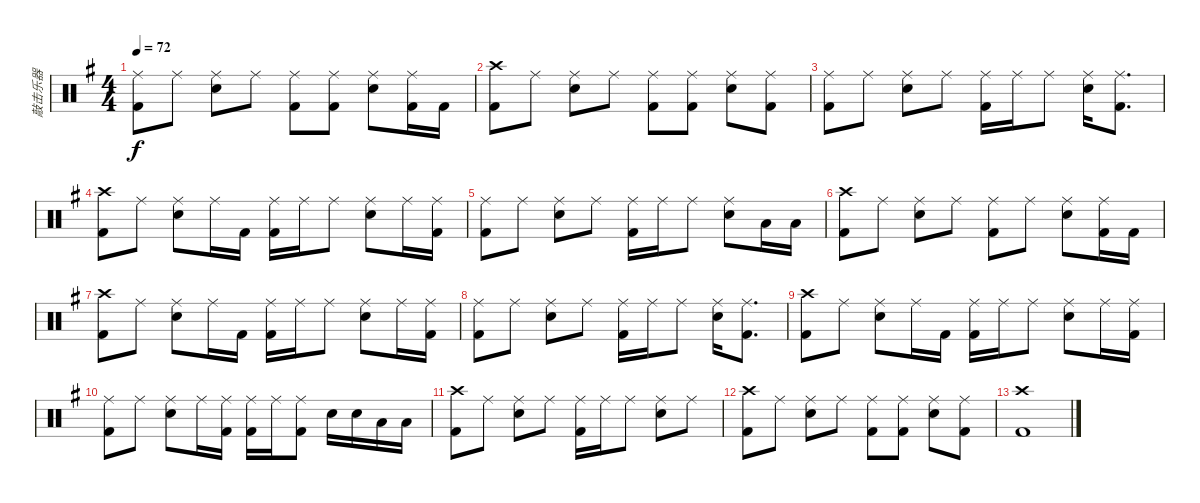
\track ("敲击乐器" "敲击乐器") {instrument percussion}
\staff {score}
\articulation defaults
\ts (4 4)
\tempo 72
\clef neutral
\ks g
("Ride (middle)" "Kick (hit) 2").8{dy f} "Ride (middle)".8 ("Ride (middle)" "Snare (hit) 2").8 "Ride (middle)".8 ("Ride (middle)" "Kick (hit) 2").8 ("Ride (middle)" "Kick (hit) 2").8 ("Ride (middle)" "Snare (hit) 2").8 ("Ride (middle)" "Kick (hit) 2").16 "Kick (hit) 2".16 |
("Crash high (hit)" "Kick (hit) 2").8 "Ride (middle)".8 ("Ride (middle)" "Snare (hit) 2").8 "Ride (middle)".8 ("Ride (middle)" "Kick (hit) 2").8 ("Ride (middle)" "Kick (hit) 2").8 ("Ride (middle)" "Snare (hit) 2").8 ("Ride (middle)" "Kick (hit) 2").8 |
("Ride (middle)" "Kick (hit) 2").8 "Ride (middle)".8 ("Ride (middle)" "Snare (hit) 2").8 "Ride (middle)".8 ("Ride (middle)" "Kick (hit) 2").16 "Ride (middle)".16 "Ride (middle)".8 ("Ride (middle)" "Snare (hit) 2").16 ("Ride (middle)" "Kick (hit) 2").8{d} |
("Crash high (hit)" "Kick (hit) 2").8 "Ride (middle)".8 ("Ride (middle)" "Snare (hit) 2").8 "Ride (middle)".16 "Kick (hit) 2".16 ("Ride (middle)" "Kick (hit) 2").16 "Ride (middle)".16 "Ride (middle)".8 ("Ride (middle)" "Snare (hit) 2").8 "Ride (middle)".16 ("Ride (middle)" "Kick (hit) 2").16 |
("Ride (middle)" "Kick (hit) 2").8 "Ride (middle)".8 ("Ride (middle)" "Snare (hit) 2").8 "Ride (middle)".8 ("Ride (middle)" "Kick (hit) 2").16 "Ride (middle)".16 "Ride (middle)".8 ("Ride (middle)" "Snare (hit) 2").8 "Low Tom (hit)".16 "Low Tom (hit)".16 |
("Crash high (hit)" "Kick (hit) 2").8 "Ride (middle)".8 ("Ride (middle)" "Snare (hit) 2").8 "Ride (middle)".8 ("Ride (middle)" "Kick (hit) 2").8 "Ride (middle)".8 ("Ride (middle)" "Snare (hit) 2").8 ("Ride (middle)" "Kick (hit) 2").16 "Kick (hit) 2".16 |
("Crash high (hit)" "Kick (hit) 2").8 "Ride (middle)".8 ("Ride (middle)" "Snare (hit) 2").8 "Ride (middle)".16 "Kick (hit) 2".16 ("Ride (middle)" "Kick (hit) 2").16 "Ride (middle)".16 "Ride (middle)".8 ("Ride (middle)" "Snare (hit) 2").8 "Ride (middle)".16 ("Ride (middle)" "Kick (hit) 2").16 |
("Ride (middle)" "Kick (hit) 2").8 "Ride (middle)".8 ("Ride (middle)" "Snare (hit) 2").8 "Ride (middle)".8 ("Ride (middle)" "Kick (hit) 2").16 "Ride (middle)".16 "Ride (middle)".8 ("Ride (middle)" "Snare (hit) 2").16 ("Ride (middle)" "Kick (hit) 2").8{d} |
("Crash high (hit)" "Kick (hit) 2").8 "Ride (middle)".8 ("Ride (middle)" "Snare (hit) 2").8 "Ride (middle)".16 "Kick (hit) 2".16 ("Ride (middle)" "Kick (hit) 2").16 "Ride (middle)".16 "Ride (middle)".8 ("Ride (middle)" "Snare (hit) 2").8 "Ride (middle)".16 ("Ride (middle)" "Kick (hit) 2").16 |
("Ride (middle)" "Kick (hit) 2").8 "Ride (middle)".8 ("Ride (middle)" "Snare (hit) 2").8 "Ride (middle)".16 ("Ride (middle)" "Kick (hit) 2").16 ("Ride (middle)" "Kick (hit) 2").16 "Ride (middle)".16 ("Ride (middle)" "Kick (hit) 2").8 "Snare (hit) 2".16 "Snare (hit) 2".16 "Low Tom (hit)".16 "Low Tom (hit)".16 |
("Crash high (hit)" "Kick (hit) 2").8 "Ride (middle)".8 ("Ride (middle)" "Snare (hit) 2").8 "Ride (middle)".8 ("Ride (middle)" "Kick (hit) 2").16 "Ride (middle)".16 "Ride (middle)".8 ("Ride (middle)" "Snare (hit) 2").8 "Ride (middle)".8 |
("Crash high (hit)" "Kick (hit) 2").8 "Ride (middle)".8 ("Ride (middle)" "Snare (hit) 2").8 "Ride (middle)".8 ("Ride (middle)" "Kick (hit) 2").8 ("Ride (middle)" "Kick (hit) 2").8 ("Ride (middle)" "Snare (hit) 2").8 ("Ride (middle)" "Kick (hit) 2").8 |
("Crash high (hit)" "Kick (hit) 2").1
